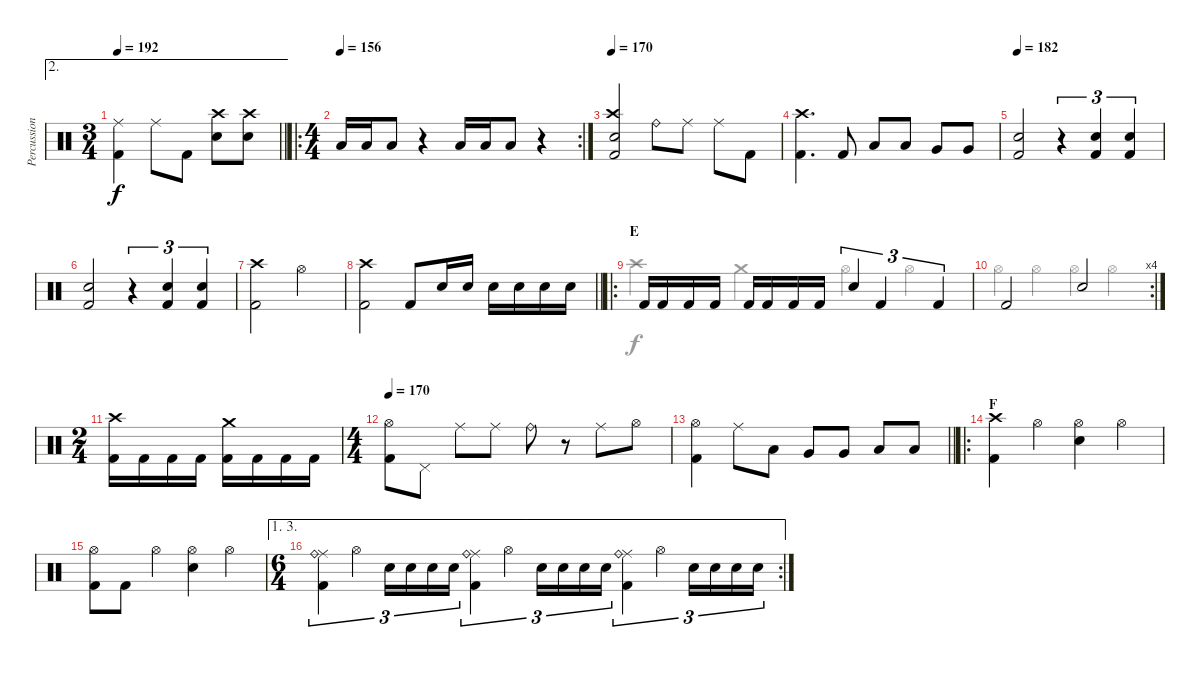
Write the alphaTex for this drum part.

\track ("Percussion" "Percussion") {instrument percussion}
\staff {score}
\articulation defaults
\voice
\ae 2
\ts (3 4)
\tempo 192
\clef neutral
\barLineRight lightlight
\ks c
("Ride (middle)" "Kick (hit) 2").4{dy f} "Ride (middle)".8 "Kick (hit) 2".8 ("Crash high (hit)" "Electric Snare (hit)").8 ("Crash high (hit)" "Electric Snare (hit)").8 |
\ro
\rc 2
\ts (4 4)
\section ("" "")
\tempo (156)
"Low Floor Tom (hit)".16 "Low Floor Tom (hit)".16 "Low Floor Tom (hit)".8 r.4 "Low Floor Tom (hit)".16 "Low Floor Tom (hit)".16 "Low Floor Tom (hit)".8 r.4 |
\tempo 170
("Crash high (hit)" "Electric Snare (hit)" "Kick (hit) 2").2 "Ride (bell)".8 "Ride (middle)".8 "Ride (middle)".8 "Kick (hit) 2".8 |
("Crash high (hit)" "Kick (hit) 2").4{d} "Kick (hit) 2".8 "Low Tom (hit)".8 "Low Tom (hit)".8 "Very Low Tom (hit)".8 "Very Low Tom (hit)".8 |
\tempo 182
("Electric Snare (hit)" "Kick (hit) 2").2 r.4{tu (3 2)} ("Electric Snare (hit)" "Kick (hit) 2").4{tu (3 2)} ("Electric Snare (hit)" "Kick (hit) 2").4{tu (3 2)} |
("Electric Snare (hit)" "Kick (hit) 2").2 r.4{tu (3 2)} ("Electric Snare (hit)" "Kick (hit) 2").4{tu (3 2)} ("Electric Snare (hit)" "Kick (hit) 2").4{tu (3 2)} |
("Crash high (hit)" "Kick (hit) 2").2 "Hi-Hat (open)".2 |
\barLineRight lightlight
("Crash high (hit)" "Kick (hit) 2").2 "Kick (hit) 2".8 "Electric Snare (hit)".16 "Electric Snare (hit)".16 "Electric Snare (hit)".16 "Electric Snare (hit)".16 "Electric Snare (hit)".16 "Electric Snare (hit)".16 |
\ro
\section ("" "E")
"Kick (hit) 2".16 "Kick (hit) 2".16 "Kick (hit) 2".16 "Kick (hit) 2".16 "Kick (hit) 2".16 "Kick (hit) 2".16 "Kick (hit) 2".16 "Kick (hit) 2".16 "Electric Snare (hit)".4{tu (3 2)} "Kick (hit) 2".4{tu (3 2)} "Kick (hit) 2".4{tu (3 2)} |
\rc 4 "Kick (hit) 2".2 "Electric Snare (hit)".2
|
\ts (2 4)
("Crash high (hit)" "Kick (hit) 2").16 "Kick (hit) 2".16 "Kick (hit) 2".16 "Kick (hit) 2".16 ("Crash medium (hit)" "Kick (hit) 2").16 "Kick (hit) 2".16 "Kick (hit) 2".16 "Kick (hit) 2".16 |
\ts (4 4)
\tempo 170
("Hi-Hat (open)" "Kick (hit) 2").8 "Pedal Hi-Hat (hit)".8 "Ride (middle)".8 "Ride (middle)".8 "Ride (bell)".8 r.8 "Ride (middle)".8 "Hi-Hat (open)".8 |
\barLineRight lightlight
("Hi-Hat (open)" "Kick (hit) 2").4 "Ride (middle)".8 "Low Tom (hit)".8 "Very Low Tom (hit)".8 "Very Low Tom (hit)".8 "Low Floor Tom (hit)".8 "Low Floor Tom (hit)".8 |
\ro
\section ("" "F")
("Crash high (hit)" "Kick (hit) 2").4 "Hi-Hat (open)".4 ("Hi-Hat (open)" "Electric Snare (hit)").4 "Hi-Hat (open)".4 |
("Hi-Hat (open)" "Kick (hit) 2").8 "Kick (hit) 2".8 "Hi-Hat (open)".4 ("Hi-Hat (open)" "Electric Snare (hit)").4 "Hi-Hat (open)".4 |
\ae (1 3)
\rc 2
\ts (6 4)
("Ride (middle)" "Ride (bell)" "Kick (hit) 2").4{tu (3 2)} "Hi-Hat (open)".4{tu (3 2)} "Electric Snare (hit)".16{tu (3 2)} "Electric Snare (hit)".16{tu (3 2)} "Electric Snare (hit)".16{tu (3 2)} "Electric Snare (hit)".16{tu (3 2)} ("Ride (middle)" "Ride (bell)" "Kick (hit) 2").4{tu (3 2)} "Hi-Hat (open)".4{tu (3 2)} "Electric Snare (hit)".16{tu (3 2)} "Electric Snare (hit)".16{tu (3 2)} "Electric Snare (hit)".16{tu (3 2)} "Electric Snare (hit)".16{tu (3 2)} ("Ride (middle)" "Ride (bell)" "Kick (hit) 2").4{tu (3 2)} "Hi-Hat (open)".4{tu (3 2)} "Electric Snare (hit)".16{tu (3 2)} "Electric Snare (hit)".16{tu (3 2)} "Electric Snare (hit)".16{tu (3 2)} "Electric Snare (hit)".16{tu (3 2)}
\voice
\clef neutral
\ottava regular
\simile none
\barLineRight lightlight
\ks c
|
|
|
|
|
|
|
\barLineRight lightlight
|
"Crash high (hit)".4 "Crash medium (hit)".4 "Hi-Hat (open)".4 "Hi-Hat (open)".4 |
"Hi-Hat (open)".4 "Hi-Hat (open)".4 "Hi-Hat (open)".4 "Hi-Hat (open)".4 |
|
|
\barLineRight lightlight
|
|
|
